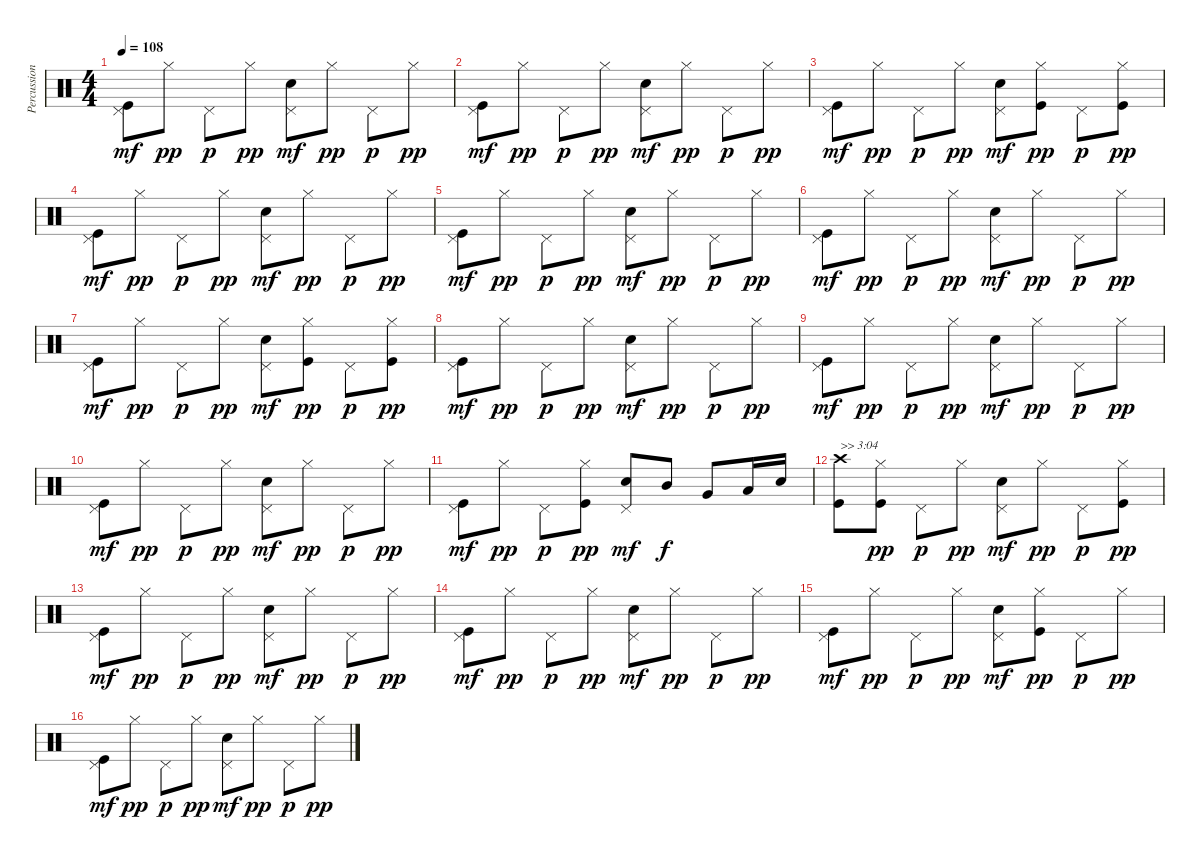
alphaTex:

\track ("Percussion" "Percussion") {instrument percussion}
\staff {score}
\articulation defaults
\ts (4 4)
\tempo 108
\clef neutral
\ks c
("Kick (hit)" "Pedal Hi-Hat (hit)").8{dy mf} "Hi-Hat (closed)".8{dy pp} "Pedal Hi-Hat (hit)".8{dy p} "Hi-Hat (closed)".8{dy pp} ("Electric Snare (hit)" "Pedal Hi-Hat (hit)").8{dy mf} "Hi-Hat (closed)".8{dy pp} "Pedal Hi-Hat (hit)".8{dy p} "Hi-Hat (closed)".8{dy pp} |
("Kick (hit)" "Pedal Hi-Hat (hit)").8{dy mf} "Hi-Hat (closed)".8{dy pp} "Pedal Hi-Hat (hit)".8{dy p} "Hi-Hat (closed)".8{dy pp} ("Electric Snare (hit)" "Pedal Hi-Hat (hit)").8{dy mf} "Hi-Hat (closed)".8{dy pp} "Pedal Hi-Hat (hit)".8{dy p} "Hi-Hat (closed)".8{dy pp} |
("Kick (hit)" "Pedal Hi-Hat (hit)").8{dy mf} "Hi-Hat (closed)".8{dy pp} "Pedal Hi-Hat (hit)".8{dy p} "Hi-Hat (closed)".8{dy pp} ("Electric Snare (hit)" "Pedal Hi-Hat (hit)").8{dy mf} ("Kick (hit)" "Hi-Hat (closed)").8{dy pp} "Pedal Hi-Hat (hit)".8{dy p} ("Kick (hit)" "Hi-Hat (closed)").8{dy pp} |
("Kick (hit)" "Pedal Hi-Hat (hit)").8{dy mf} "Hi-Hat (closed)".8{dy pp} "Pedal Hi-Hat (hit)".8{dy p} "Hi-Hat (closed)".8{dy pp} ("Electric Snare (hit)" "Pedal Hi-Hat (hit)").8{dy mf} "Hi-Hat (closed)".8{dy pp} "Pedal Hi-Hat (hit)".8{dy p} "Hi-Hat (closed)".8{dy pp} |
("Kick (hit)" "Pedal Hi-Hat (hit)").8{dy mf} "Hi-Hat (closed)".8{dy pp} "Pedal Hi-Hat (hit)".8{dy p} "Hi-Hat (closed)".8{dy pp} ("Electric Snare (hit)" "Pedal Hi-Hat (hit)").8{dy mf} "Hi-Hat (closed)".8{dy pp} "Pedal Hi-Hat (hit)".8{dy p} "Hi-Hat (closed)".8{dy pp} |
("Kick (hit)" "Pedal Hi-Hat (hit)").8{dy mf} "Hi-Hat (closed)".8{dy pp} "Pedal Hi-Hat (hit)".8{dy p} "Hi-Hat (closed)".8{dy pp} ("Electric Snare (hit)" "Pedal Hi-Hat (hit)").8{dy mf} "Hi-Hat (closed)".8{dy pp} "Pedal Hi-Hat (hit)".8{dy p} "Hi-Hat (closed)".8{dy pp} |
("Kick (hit)" "Pedal Hi-Hat (hit)").8{dy mf} "Hi-Hat (closed)".8{dy pp} "Pedal Hi-Hat (hit)".8{dy p} "Hi-Hat (closed)".8{dy pp} ("Electric Snare (hit)" "Pedal Hi-Hat (hit)").8{dy mf} ("Kick (hit)" "Hi-Hat (closed)").8{dy pp} "Pedal Hi-Hat (hit)".8{dy p} ("Kick (hit)" "Hi-Hat (closed)").8{dy pp} |
("Kick (hit)" "Pedal Hi-Hat (hit)").8{dy mf} "Hi-Hat (closed)".8{dy pp} "Pedal Hi-Hat (hit)".8{dy p} "Hi-Hat (closed)".8{dy pp} ("Electric Snare (hit)" "Pedal Hi-Hat (hit)").8{dy mf} "Hi-Hat (closed)".8{dy pp} "Pedal Hi-Hat (hit)".8{dy p} "Hi-Hat (closed)".8{dy pp} |
("Kick (hit)" "Pedal Hi-Hat (hit)").8{dy mf} "Hi-Hat (closed)".8{dy pp} "Pedal Hi-Hat (hit)".8{dy p} "Hi-Hat (closed)".8{dy pp} ("Electric Snare (hit)" "Pedal Hi-Hat (hit)").8{dy mf} "Hi-Hat (closed)".8{dy pp} "Pedal Hi-Hat (hit)".8{dy p} "Hi-Hat (closed)".8{dy pp} |
("Kick (hit)" "Pedal Hi-Hat (hit)").8{dy mf} "Hi-Hat (closed)".8{dy pp} "Pedal Hi-Hat (hit)".8{dy p} "Hi-Hat (closed)".8{dy pp} ("Electric Snare (hit)" "Pedal Hi-Hat (hit)").8{dy mf} "Hi-Hat (closed)".8{dy pp} "Pedal Hi-Hat (hit)".8{dy p} "Hi-Hat (closed)".8{dy pp} |
("Kick (hit)" "Pedal Hi-Hat (hit)").8{dy mf} "Hi-Hat (closed)".8{dy pp} "Pedal Hi-Hat (hit)".8{dy p} ("Kick (hit)" "Hi-Hat (closed)").8{dy pp} ("Electric Snare (hit)" "Pedal Hi-Hat (hit)").8{dy mf} "Mid Tom (hit)".8{dy f} "Very Low Tom (hit)".8 "Low Floor Tom (hit)".16 "Electric Snare (hit)".16 |
("Kick (hit)" "Crash high (hit)").8{txt ">> 3:04"} ("Kick (hit)" "Hi-Hat (closed)").8{dy pp} "Pedal Hi-Hat (hit)".8{dy p} "Hi-Hat (closed)".8{dy pp} ("Electric Snare (hit)" "Pedal Hi-Hat (hit)").8{dy mf} "Hi-Hat (closed)".8{dy pp} "Pedal Hi-Hat (hit)".8{dy p} ("Kick (hit)" "Hi-Hat (closed)").8{dy pp} |
("Kick (hit)" "Pedal Hi-Hat (hit)").8{dy mf} "Hi-Hat (closed)".8{dy pp} "Pedal Hi-Hat (hit)".8{dy p} "Hi-Hat (closed)".8{dy pp} ("Electric Snare (hit)" "Pedal Hi-Hat (hit)").8{dy mf} "Hi-Hat (closed)".8{dy pp} "Pedal Hi-Hat (hit)".8{dy p} "Hi-Hat (closed)".8{dy pp} |
("Kick (hit)" "Pedal Hi-Hat (hit)").8{dy mf} "Hi-Hat (closed)".8{dy pp} "Pedal Hi-Hat (hit)".8{dy p} "Hi-Hat (closed)".8{dy pp} ("Electric Snare (hit)" "Pedal Hi-Hat (hit)").8{dy mf} "Hi-Hat (closed)".8{dy pp} "Pedal Hi-Hat (hit)".8{dy p} "Hi-Hat (closed)".8{dy pp} |
("Kick (hit)" "Pedal Hi-Hat (hit)").8{dy mf} "Hi-Hat (closed)".8{dy pp} "Pedal Hi-Hat (hit)".8{dy p} "Hi-Hat (closed)".8{dy pp} ("Electric Snare (hit)" "Pedal Hi-Hat (hit)").8{dy mf} ("Kick (hit)" "Hi-Hat (closed)").8{dy pp} "Pedal Hi-Hat (hit)".8{dy p} "Hi-Hat (closed)".8{dy pp} |
("Kick (hit)" "Pedal Hi-Hat (hit)").8{dy mf} "Hi-Hat (closed)".8{dy pp} "Pedal Hi-Hat (hit)".8{dy p} "Hi-Hat (closed)".8{dy pp} ("Electric Snare (hit)" "Pedal Hi-Hat (hit)").8{dy mf} "Hi-Hat (closed)".8{dy pp} "Pedal Hi-Hat (hit)".8{dy p} "Hi-Hat (closed)".8{dy pp}
